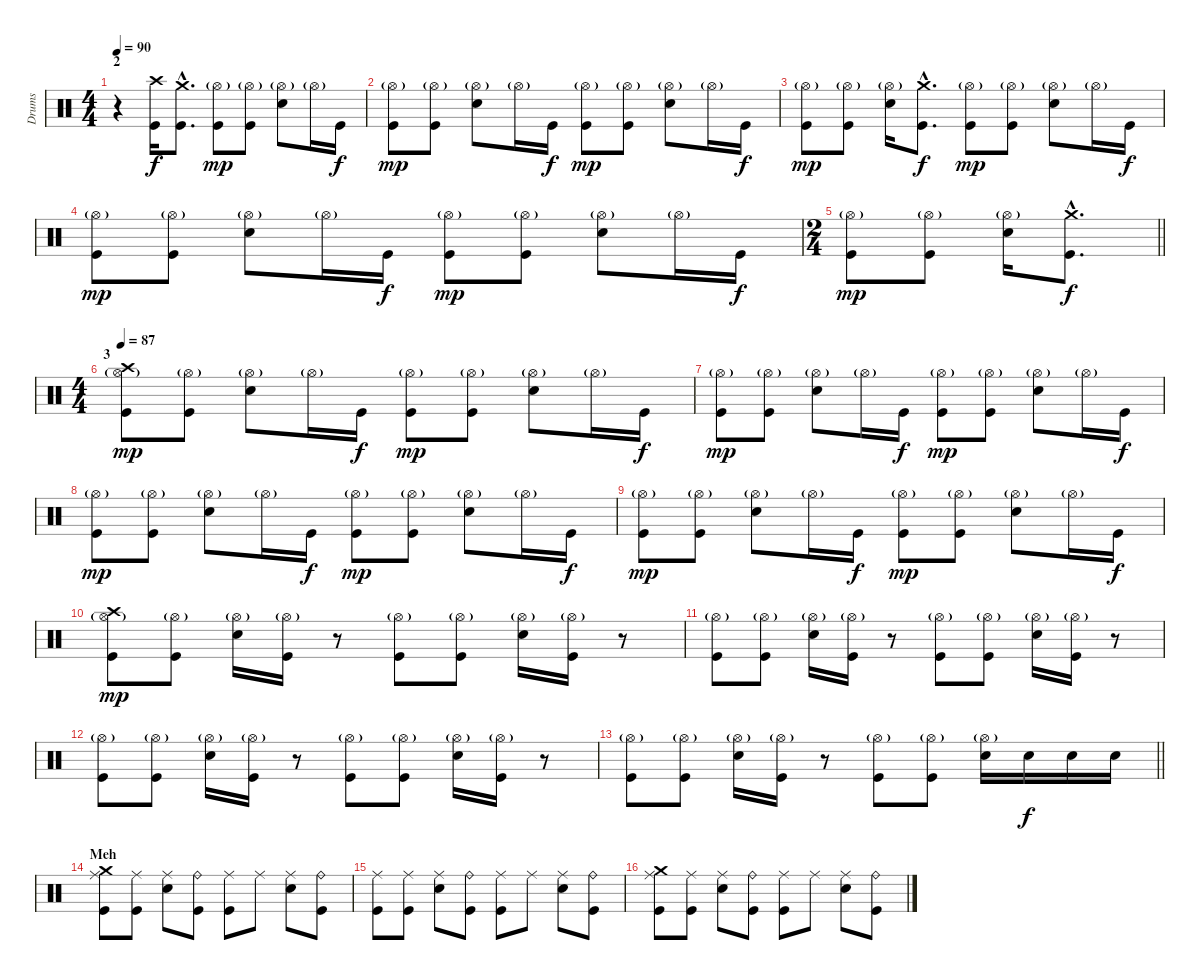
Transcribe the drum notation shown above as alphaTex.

\track ("Drums" "Drums") {instrument percussion}
\staff {score}
\articulation defaults
\ts (4 4)
\section ("" "2")
\tempo 90
\clef neutral
\ks c
r.4{dy f} ("Crash high (hit)" "Kick (hit)").16 ("Crash medium (hit)"{hac} "Kick (hit)"{hac}).8{d} ("Hi-Hat (open)"{g} "Kick (hit)").8{dy mp} ("Hi-Hat (open)"{g} "Kick (hit)").8 ("Hi-Hat (open)"{g} "Electric Snare (hit)").8 "Hi-Hat (open)"{g}.16 "Kick (hit)".16{dy f} |
("Hi-Hat (open)"{g} "Kick (hit)").8{dy mp} ("Hi-Hat (open)"{g} "Kick (hit)").8 ("Hi-Hat (open)"{g} "Electric Snare (hit)").8 "Hi-Hat (open)"{g}.16 "Kick (hit)".16{dy f} ("Hi-Hat (open)"{g} "Kick (hit)").8{dy mp} ("Hi-Hat (open)"{g} "Kick (hit)").8 ("Hi-Hat (open)"{g} "Electric Snare (hit)").8 "Hi-Hat (open)"{g}.16 "Kick (hit)".16{dy f} |
("Hi-Hat (open)"{g} "Kick (hit)").8{dy mp} ("Hi-Hat (open)"{g} "Kick (hit)").8 ("Hi-Hat (open)"{g} "Electric Snare (hit)").16 ("Crash medium (hit)"{hac} "Kick (hit)"{hac}).8{d dy f} ("Hi-Hat (open)"{g} "Kick (hit)").8{dy mp} ("Hi-Hat (open)"{g} "Kick (hit)").8 ("Hi-Hat (open)"{g} "Electric Snare (hit)").8 "Hi-Hat (open)"{g}.16 "Kick (hit)".16{dy f} |
("Hi-Hat (open)"{g} "Kick (hit)").8{dy mp} ("Hi-Hat (open)"{g} "Kick (hit)").8 ("Hi-Hat (open)"{g} "Electric Snare (hit)").8 "Hi-Hat (open)"{g}.16 "Kick (hit)".16{dy f} ("Hi-Hat (open)"{g} "Kick (hit)").8{dy mp} ("Hi-Hat (open)"{g} "Kick (hit)").8 ("Hi-Hat (open)"{g} "Electric Snare (hit)").8 "Hi-Hat (open)"{g}.16 "Kick (hit)".16{dy f} |
\ts (2 4)
\barLineRight lightlight
("Hi-Hat (open)"{g} "Kick (hit)").8{dy mp} ("Hi-Hat (open)"{g} "Kick (hit)").8 ("Hi-Hat (open)"{g} "Electric Snare (hit)").16 ("Crash medium (hit)"{hac} "Kick (hit)"{hac}).8{d dy f} |
\ts (4 4)
\section ("" "3")
\tempo 87
("Crash high (hit)" "Hi-Hat (open)"{g} "Kick (hit)").8{dy mp} ("Hi-Hat (open)"{g} "Kick (hit)").8 ("Hi-Hat (open)"{g} "Electric Snare (hit)").8 "Hi-Hat (open)"{g}.16 "Kick (hit)".16{dy f} ("Hi-Hat (open)"{g} "Kick (hit)").8{dy mp} ("Hi-Hat (open)"{g} "Kick (hit)").8 ("Hi-Hat (open)"{g} "Electric Snare (hit)").8 "Hi-Hat (open)"{g}.16 "Kick (hit)".16{dy f} |
("Hi-Hat (open)"{g} "Kick (hit)").8{dy mp} ("Hi-Hat (open)"{g} "Kick (hit)").8 ("Hi-Hat (open)"{g} "Electric Snare (hit)").8 "Hi-Hat (open)"{g}.16 "Kick (hit)".16{dy f} ("Hi-Hat (open)"{g} "Kick (hit)").8{dy mp} ("Hi-Hat (open)"{g} "Kick (hit)").8 ("Hi-Hat (open)"{g} "Electric Snare (hit)").8 "Hi-Hat (open)"{g}.16 "Kick (hit)".16{dy f} |
("Hi-Hat (open)"{g} "Kick (hit)").8{dy mp} ("Hi-Hat (open)"{g} "Kick (hit)").8 ("Hi-Hat (open)"{g} "Electric Snare (hit)").8 "Hi-Hat (open)"{g}.16 "Kick (hit)".16{dy f} ("Hi-Hat (open)"{g} "Kick (hit)").8{dy mp} ("Hi-Hat (open)"{g} "Kick (hit)").8 ("Hi-Hat (open)"{g} "Electric Snare (hit)").8 "Hi-Hat (open)"{g}.16 "Kick (hit)".16{dy f} |
("Hi-Hat (open)"{g} "Kick (hit)").8{dy mp} ("Hi-Hat (open)"{g} "Kick (hit)").8 ("Hi-Hat (open)"{g} "Electric Snare (hit)").8 "Hi-Hat (open)"{g}.16 "Kick (hit)".16{dy f} ("Hi-Hat (open)"{g} "Kick (hit)").8{dy mp} ("Hi-Hat (open)"{g} "Kick (hit)").8 ("Hi-Hat (open)"{g} "Electric Snare (hit)").8 "Hi-Hat (open)"{g}.16 "Kick (hit)".16{dy f} |
("Crash high (hit)" "Hi-Hat (open)"{g} "Kick (hit)").8{dy mp} ("Hi-Hat (open)"{g} "Kick (hit)").8 ("Hi-Hat (open)"{g} "Electric Snare (hit)").16 ("Hi-Hat (open)"{g} "Kick (hit)").16 r.8 ("Hi-Hat (open)"{g} "Kick (hit)").8 ("Hi-Hat (open)"{g} "Kick (hit)").8 ("Hi-Hat (open)"{g} "Electric Snare (hit)").16 ("Hi-Hat (open)"{g} "Kick (hit)").16 r.8 |
("Hi-Hat (open)"{g} "Kick (hit)").8 ("Hi-Hat (open)"{g} "Kick (hit)").8 ("Hi-Hat (open)"{g} "Electric Snare (hit)").16 ("Hi-Hat (open)"{g} "Kick (hit)").16 r.8 ("Hi-Hat (open)"{g} "Kick (hit)").8 ("Hi-Hat (open)"{g} "Kick (hit)").8 ("Hi-Hat (open)"{g} "Electric Snare (hit)").16 ("Hi-Hat (open)"{g} "Kick (hit)").16 r.8 |
("Hi-Hat (open)"{g} "Kick (hit)").8 ("Hi-Hat (open)"{g} "Kick (hit)").8 ("Hi-Hat (open)"{g} "Electric Snare (hit)").16 ("Hi-Hat (open)"{g} "Kick (hit)").16 r.8 ("Hi-Hat (open)"{g} "Kick (hit)").8 ("Hi-Hat (open)"{g} "Kick (hit)").8 ("Hi-Hat (open)"{g} "Electric Snare (hit)").16 ("Hi-Hat (open)"{g} "Kick (hit)").16 r.8 |
\barLineRight lightlight
("Hi-Hat (open)"{g} "Kick (hit)").8 ("Hi-Hat (open)"{g} "Kick (hit)").8 ("Hi-Hat (open)"{g} "Electric Snare (hit)").16 ("Hi-Hat (open)"{g} "Kick (hit)").16 r.8 ("Hi-Hat (open)"{g} "Kick (hit)").8 ("Hi-Hat (open)"{g} "Kick (hit)").8 ("Hi-Hat (open)"{g} "Electric Snare (hit)").16 "Electric Snare (hit)".16{dy f} "Electric Snare (hit)".16 "Electric Snare (hit)".16 |
\section ("" "Meh")
("Crash medium (hit)" "Ride (middle)" "Kick (hit)").8 ("Ride (middle)" "Kick (hit)").8 ("Ride (middle)" "Electric Snare (hit)").8 ("Ride (bell)" "Kick (hit)").8 ("Ride (middle)" "Kick (hit)").8 "Ride (middle)".8 ("Ride (middle)" "Electric Snare (hit)").8 ("Ride (bell)" "Kick (hit)").8 |
("Ride (middle)" "Kick (hit)").8 ("Ride (middle)" "Kick (hit)").8 ("Ride (middle)" "Electric Snare (hit)").8 ("Ride (bell)" "Kick (hit)").8 ("Ride (middle)" "Kick (hit)").8 "Ride (middle)".8 ("Ride (middle)" "Electric Snare (hit)").8 ("Ride (bell)" "Kick (hit)").8 |
("Crash medium (hit)" "Ride (middle)" "Kick (hit)").8 ("Ride (middle)" "Kick (hit)").8 ("Ride (middle)" "Electric Snare (hit)").8 ("Ride (bell)" "Kick (hit)").8 ("Ride (middle)" "Kick (hit)").8 "Ride (middle)".8 ("Ride (middle)" "Electric Snare (hit)").8 ("Ride (bell)" "Kick (hit)").8
